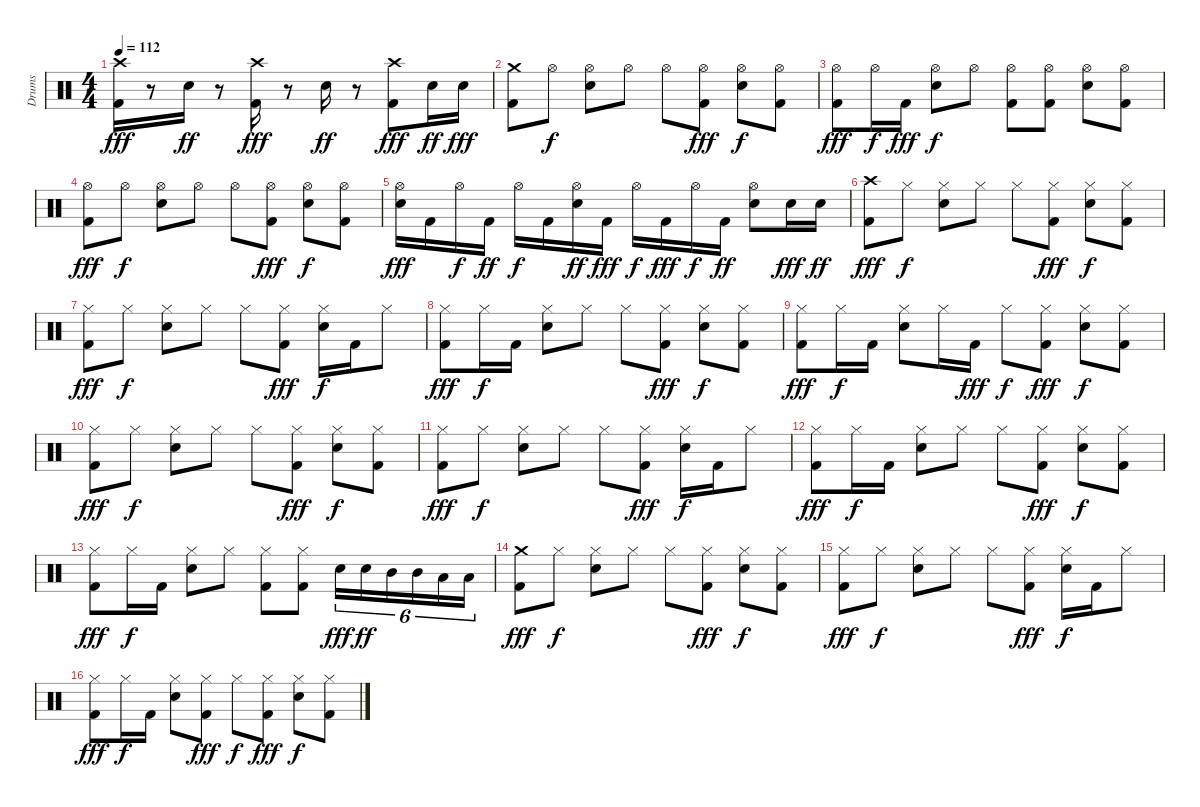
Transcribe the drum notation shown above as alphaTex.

\track ("Drums" "Drums") {instrument percussion}
\staff {score}
\articulation defaults
\ts (4 4)
\tempo 112
\clef neutral
\ks c
("Crash high (hit)" "Kick (hit) 2").16{dy fff} r.8 "Snare (hit) 2".16{dy ff} r.8 ("Crash high (hit)" "Kick (hit) 2").16{dy fff} r.8 "Snare (hit) 2".16{dy ff} r.8 ("Crash high (hit)" "Kick (hit) 2").8{dy fff} "Snare (hit) 2".16{dy ff} "Snare (hit) 2".16{dy fff} |
("Crash medium (hit)" "Kick (hit) 2").8 "Hi-Hat (open)".8{dy f} ("Hi-Hat (open)" "Snare (hit) 2").8 "Hi-Hat (open)".8 "Hi-Hat (open)".8 ("Hi-Hat (open)" "Kick (hit) 2").8{dy fff} ("Hi-Hat (open)" "Snare (hit) 2").8{dy f} ("Hi-Hat (open)" "Kick (hit) 2").8 |
("Hi-Hat (open)" "Kick (hit) 2").8{dy fff} "Hi-Hat (open)".16{dy f} "Kick (hit) 2".16{dy fff} ("Hi-Hat (open)" "Snare (hit) 2").8{dy f} "Hi-Hat (open)".8 ("Kick (hit) 2" "Hi-Hat (open)").8 ("Hi-Hat (open)" "Kick (hit) 2").8 ("Hi-Hat (open)" "Snare (hit) 2").8 ("Hi-Hat (open)" "Kick (hit) 2").8 |
("Hi-Hat (open)" "Kick (hit) 2").8{dy fff} "Hi-Hat (open)".8{dy f} ("Hi-Hat (open)" "Snare (hit) 2").8 "Hi-Hat (open)".8 "Hi-Hat (open)".8 ("Hi-Hat (open)" "Kick (hit) 2").8{dy fff} ("Hi-Hat (open)" "Snare (hit) 2").8{dy f} ("Hi-Hat (open)" "Kick (hit) 2").8 |
("Hi-Hat (open)" "Snare (hit) 2").16{dy fff} "Kick (hit) 2".16 "Hi-Hat (open)".16{dy f} "Kick (hit) 2".16{dy ff} "Hi-Hat (open)".16{dy f} "Kick (hit) 2".16 ("Hi-Hat (open)" "Snare (hit) 2").16{dy ff} "Kick (hit) 2".16{dy fff} "Hi-Hat (open)".16{dy f} "Kick (hit) 2".16{dy fff} "Hi-Hat (open)".16{dy f} "Kick (hit) 2".16{dy ff} ("Hi-Hat (open)" "Snare (hit) 2").8 "Snare (hit) 2".16{dy fff} "Snare (hit) 2".16{dy ff} |
("Kick (hit) 2" "Crash high (hit)").8{dy fff} "Hi-Hat (closed)".8{dy f} ("Hi-Hat (closed)" "Snare (hit) 2").8 "Hi-Hat (closed)".8 "Hi-Hat (closed)".8 ("Hi-Hat (closed)" "Kick (hit) 2").8{dy fff} ("Hi-Hat (closed)" "Snare (hit) 2").8{dy f} ("Hi-Hat (closed)" "Kick (hit) 2").8 |
("Hi-Hat (closed)" "Kick (hit) 2").8{dy fff} "Hi-Hat (closed)".8{dy f} ("Hi-Hat (closed)" "Snare (hit) 2").8 "Hi-Hat (closed)".8 "Hi-Hat (closed)".8 ("Hi-Hat (closed)" "Kick (hit) 2").8{dy fff} ("Hi-Hat (closed)" "Snare (hit) 2").16{dy f} "Kick (hit) 2".16 "Hi-Hat (closed)".8 |
("Hi-Hat (closed)" "Kick (hit) 2").8{dy fff} "Hi-Hat (closed)".16{dy f} "Kick (hit) 2".16 ("Hi-Hat (closed)" "Snare (hit) 2").8 "Hi-Hat (closed)".8 "Hi-Hat (closed)".8 ("Hi-Hat (closed)" "Kick (hit) 2").8{dy fff} ("Hi-Hat (closed)" "Snare (hit) 2").8{dy f} ("Kick (hit) 2" "Hi-Hat (closed)").8 |
("Hi-Hat (closed)" "Kick (hit) 2").8{dy fff} "Hi-Hat (closed)".16{dy f} "Kick (hit) 2".16 ("Hi-Hat (closed)" "Snare (hit) 2").8 "Hi-Hat (closed)".16 "Kick (hit) 2".16{dy fff} "Hi-Hat (closed)".8{dy f} ("Kick (hit) 2" "Hi-Hat (closed)").8{dy fff} ("Hi-Hat (closed)" "Snare (hit) 2").8{dy f} ("Kick (hit) 2" "Hi-Hat (closed)").8 |
("Hi-Hat (closed)" "Kick (hit) 2").8{dy fff} "Hi-Hat (closed)".8{dy f} ("Hi-Hat (closed)" "Snare (hit) 2").8 "Hi-Hat (closed)".8 "Hi-Hat (closed)".8 ("Hi-Hat (closed)" "Kick (hit) 2").8{dy fff} ("Hi-Hat (closed)" "Snare (hit) 2").8{dy f} ("Hi-Hat (closed)" "Kick (hit) 2").8 |
("Hi-Hat (closed)" "Kick (hit) 2").8{dy fff} "Hi-Hat (closed)".8{dy f} ("Hi-Hat (closed)" "Snare (hit) 2").8 "Hi-Hat (closed)".8 "Hi-Hat (closed)".8 ("Hi-Hat (closed)" "Kick (hit) 2").8{dy fff} ("Hi-Hat (closed)" "Snare (hit) 2").16{dy f} "Kick (hit) 2".16 "Hi-Hat (closed)".8 |
("Hi-Hat (closed)" "Kick (hit) 2").8{dy fff} "Hi-Hat (closed)".16{dy f} "Kick (hit) 2".16 ("Hi-Hat (closed)" "Snare (hit) 2").8 "Hi-Hat (closed)".8 "Hi-Hat (closed)".8 ("Hi-Hat (closed)" "Kick (hit) 2").8{dy fff} ("Hi-Hat (closed)" "Snare (hit) 2").8{dy f} ("Kick (hit) 2" "Hi-Hat (closed)").8 |
("Hi-Hat (closed)" "Kick (hit) 2").8{dy fff} "Hi-Hat (closed)".16{dy f} "Kick (hit) 2".16 ("Hi-Hat (closed)" "Snare (hit) 2").8 "Hi-Hat (closed)".8 ("Kick (hit) 2" "Hi-Hat (closed)").8 ("Kick (hit) 2" "Hi-Hat (closed)").8 "Snare (hit) 2".16{tu (6 4) dy fff} "Snare (hit) 2".16{tu (6 4) dy ff} "Mid Tom (hit)".16{tu (6 4)} "Mid Tom (hit)".16{tu (6 4)} "Low Floor Tom (hit)".16{tu (6 4)} "Low Floor Tom (hit)".16{tu (6 4)} |
("Crash medium (hit)" "Kick (hit) 2").8{dy fff} "Hi-Hat (closed)".8{dy f} ("Hi-Hat (closed)" "Snare (hit) 2").8 "Hi-Hat (closed)".8 "Hi-Hat (closed)".8 ("Hi-Hat (closed)" "Kick (hit) 2").8{dy fff} ("Hi-Hat (closed)" "Snare (hit) 2").8{dy f} ("Kick (hit) 2" "Hi-Hat (closed)").8 |
("Hi-Hat (closed)" "Kick (hit) 2").8{dy fff} "Hi-Hat (closed)".8{dy f} ("Hi-Hat (closed)" "Snare (hit) 2").8 "Hi-Hat (closed)".8 "Hi-Hat (closed)".8 ("Kick (hit) 2" "Hi-Hat (closed)").8{dy fff} ("Hi-Hat (closed)" "Snare (hit) 2").16{dy f} "Kick (hit) 2".16 "Hi-Hat (closed)".8 |
("Hi-Hat (closed)" "Kick (hit) 2").8{dy fff} "Hi-Hat (closed)".16{dy f} "Kick (hit) 2".16 ("Hi-Hat (closed)" "Snare (hit) 2").8 ("Kick (hit) 2" "Hi-Hat (closed)").8{dy fff} "Hi-Hat (closed)".8{dy f} ("Hi-Hat (closed)" "Kick (hit) 2").8{dy fff} ("Hi-Hat (closed)" "Snare (hit) 2").8{dy f} ("Hi-Hat (closed)" "Kick (hit) 2").8
